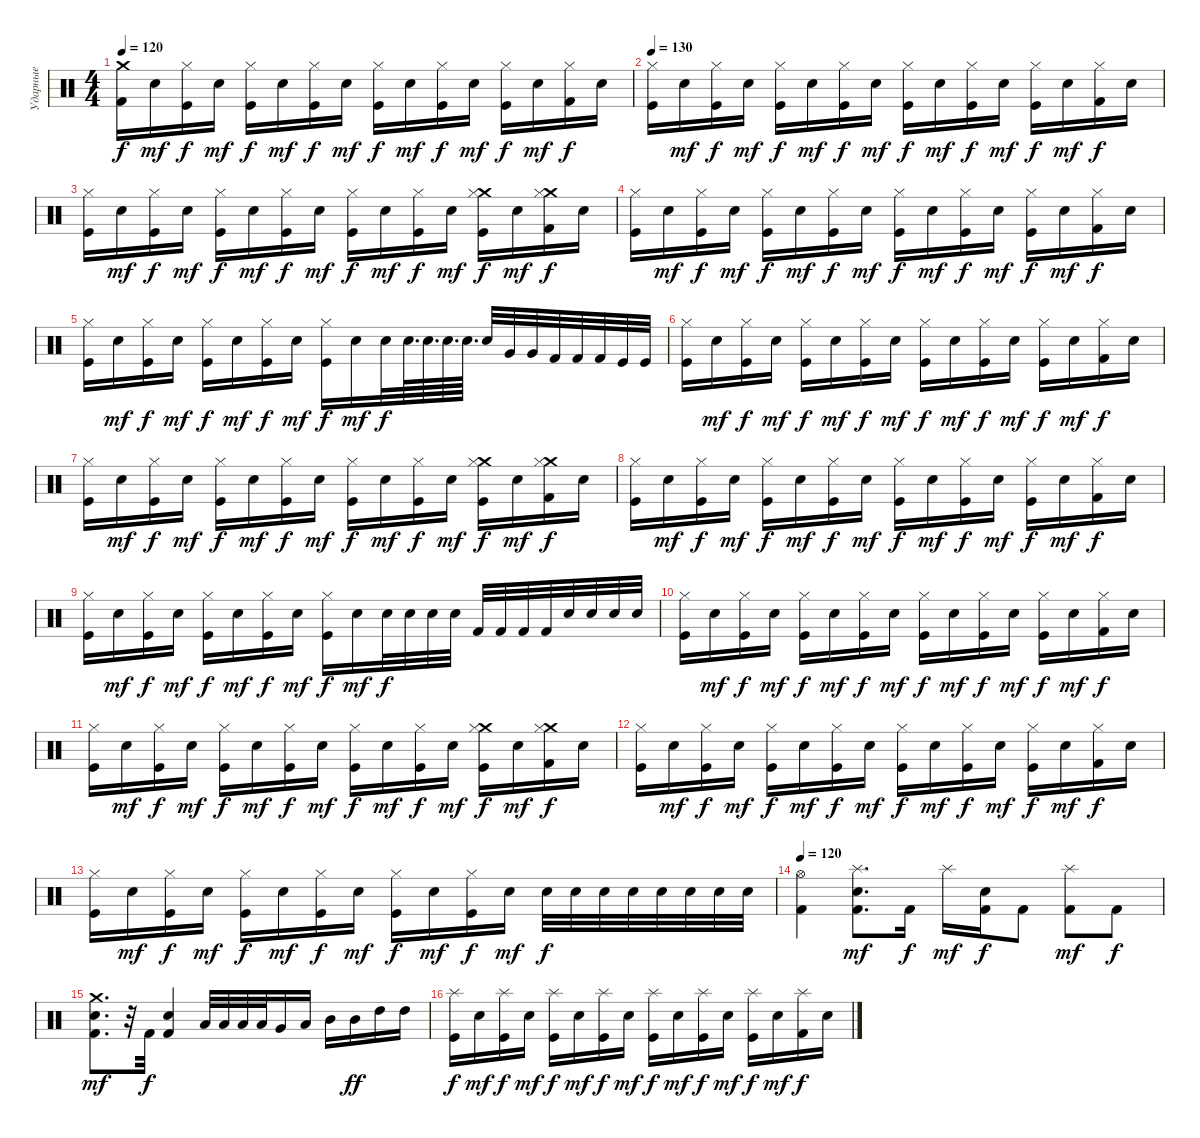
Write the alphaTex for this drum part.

\track ("Ударные" "Ударные") {instrument percussion}
\staff {score}
\articulation defaults
\ts (4 4)
\tempo 120
\clef neutral
\ks c
("Crash medium (hit)" "Kick (hit) 2").16{dy f} "Electric Snare (hit)".16{dy mf} ("Hi-Hat (closed)" "Kick (hit)").16{dy f} "Electric Snare (hit)".16{dy mf} ("Hi-Hat (closed)" "Kick (hit)").16{dy f} "Electric Snare (hit)".16{dy mf} ("Hi-Hat (closed)" "Kick (hit)").16{dy f} "Electric Snare (hit)".16{dy mf} ("Hi-Hat (closed)" "Kick (hit)").16{dy f} "Electric Snare (hit)".16{dy mf} ("Hi-Hat (closed)" "Kick (hit)").16{dy f} "Electric Snare (hit)".16{dy mf} ("Hi-Hat (closed)" "Kick (hit)").16{dy f} "Electric Snare (hit)".16{dy mf} ("Hi-Hat (closed)" "Kick (hit) 2").16{dy f} "Electric Snare (hit)".16 |
\tempo 130
("Hi-Hat (closed)" "Kick (hit)").16 "Electric Snare (hit)".16{dy mf} ("Hi-Hat (closed)" "Kick (hit)").16{dy f} "Electric Snare (hit)".16{dy mf} ("Hi-Hat (closed)" "Kick (hit)").16{dy f} "Electric Snare (hit)".16{dy mf} ("Hi-Hat (closed)" "Kick (hit)").16{dy f} "Electric Snare (hit)".16{dy mf} ("Hi-Hat (closed)" "Kick (hit)").16{dy f} "Electric Snare (hit)".16{dy mf} ("Hi-Hat (closed)" "Kick (hit)").16{dy f} "Electric Snare (hit)".16{dy mf} ("Hi-Hat (closed)" "Kick (hit)").16{dy f} "Electric Snare (hit)".16{dy mf} ("Hi-Hat (closed)" "Kick (hit) 2").16{dy f} "Electric Snare (hit)".16 |
("Hi-Hat (closed)" "Kick (hit)").16 "Electric Snare (hit)".16{dy mf} ("Hi-Hat (closed)" "Kick (hit)").16{dy f} "Electric Snare (hit)".16{dy mf} ("Hi-Hat (closed)" "Kick (hit)").16{dy f} "Electric Snare (hit)".16{dy mf} ("Hi-Hat (closed)" "Kick (hit)").16{dy f} "Electric Snare (hit)".16{dy mf} ("Hi-Hat (closed)" "Kick (hit)").16{dy f} "Electric Snare (hit)".16{dy mf} ("Hi-Hat (closed)" "Kick (hit)").16{dy f} "Electric Snare (hit)".16{dy mf} ("Crash medium (hit)" "Hi-Hat (closed)" "Kick (hit)").16{dy f} "Electric Snare (hit)".16{dy mf} ("Crash medium (hit)" "Hi-Hat (closed)" "Kick (hit) 2").16{dy f} "Electric Snare (hit)".16 |
("Hi-Hat (closed)" "Kick (hit)").16 "Electric Snare (hit)".16{dy mf} ("Hi-Hat (closed)" "Kick (hit)").16{dy f} "Electric Snare (hit)".16{dy mf} ("Hi-Hat (closed)" "Kick (hit)").16{dy f} "Electric Snare (hit)".16{dy mf} ("Hi-Hat (closed)" "Kick (hit)").16{dy f} "Electric Snare (hit)".16{dy mf} ("Hi-Hat (closed)" "Kick (hit)").16{dy f} "Electric Snare (hit)".16{dy mf} ("Hi-Hat (closed)" "Kick (hit)").16{dy f} "Electric Snare (hit)".16{dy mf} ("Hi-Hat (closed)" "Kick (hit)").16{dy f} "Electric Snare (hit)".16{dy mf} ("Hi-Hat (closed)" "Kick (hit) 2").16{dy f} "Electric Snare (hit)".16 |
("Hi-Hat (closed)" "Kick (hit)").16 "Electric Snare (hit)".16{dy mf} ("Hi-Hat (closed)" "Kick (hit)").16{dy f} "Electric Snare (hit)".16{dy mf} ("Hi-Hat (closed)" "Kick (hit)").16{dy f} "Electric Snare (hit)".16{dy mf} ("Hi-Hat (closed)" "Kick (hit)").16{dy f} "Electric Snare (hit)".16{dy mf} ("Hi-Hat (closed)" "Kick (hit)").16{dy f} "Electric Snare (hit)".16{dy mf} "Snare (hit) 2".32{dy f} "Snare (hit) 2".64{d} "Snare (hit) 2".64{d} "Electric Snare (hit)".64{d} "Electric Snare (hit)".64{d} "Electric Snare (hit)".32 "Very Low Tom (hit)".32 "Very Low Tom (hit)".32 "Kick (hit) 2".32 "Kick (hit) 2".32 "Kick (hit) 2".32 "Kick (hit)".32 "Kick (hit)".32 |
("Hi-Hat (closed)" "Kick (hit)").16 "Electric Snare (hit)".16{dy mf} ("Hi-Hat (closed)" "Kick (hit)").16{dy f} "Electric Snare (hit)".16{dy mf} ("Hi-Hat (closed)" "Kick (hit)").16{dy f} "Electric Snare (hit)".16{dy mf} ("Hi-Hat (closed)" "Kick (hit)").16{dy f} "Electric Snare (hit)".16{dy mf} ("Hi-Hat (closed)" "Kick (hit)").16{dy f} "Electric Snare (hit)".16{dy mf} ("Hi-Hat (closed)" "Kick (hit)").16{dy f} "Electric Snare (hit)".16{dy mf} ("Hi-Hat (closed)" "Kick (hit)").16{dy f} "Electric Snare (hit)".16{dy mf} ("Hi-Hat (closed)" "Kick (hit) 2").16{dy f} "Electric Snare (hit)".16 |
("Hi-Hat (closed)" "Kick (hit)").16 "Electric Snare (hit)".16{dy mf} ("Hi-Hat (closed)" "Kick (hit)").16{dy f} "Electric Snare (hit)".16{dy mf} ("Hi-Hat (closed)" "Kick (hit)").16{dy f} "Electric Snare (hit)".16{dy mf} ("Hi-Hat (closed)" "Kick (hit)").16{dy f} "Electric Snare (hit)".16{dy mf} ("Hi-Hat (closed)" "Kick (hit)").16{dy f} "Electric Snare (hit)".16{dy mf} ("Hi-Hat (closed)" "Kick (hit)").16{dy f} "Electric Snare (hit)".16{dy mf} ("Crash medium (hit)" "Hi-Hat (closed)" "Kick (hit)").16{dy f} "Electric Snare (hit)".16{dy mf} ("Crash medium (hit)" "Hi-Hat (closed)" "Kick (hit) 2").16{dy f} "Electric Snare (hit)".16 |
("Hi-Hat (closed)" "Kick (hit)").16 "Electric Snare (hit)".16{dy mf} ("Hi-Hat (closed)" "Kick (hit)").16{dy f} "Electric Snare (hit)".16{dy mf} ("Hi-Hat (closed)" "Kick (hit)").16{dy f} "Electric Snare (hit)".16{dy mf} ("Hi-Hat (closed)" "Kick (hit)").16{dy f} "Electric Snare (hit)".16{dy mf} ("Hi-Hat (closed)" "Kick (hit)").16{dy f} "Electric Snare (hit)".16{dy mf} ("Hi-Hat (closed)" "Kick (hit)").16{dy f} "Electric Snare (hit)".16{dy mf} ("Hi-Hat (closed)" "Kick (hit)").16{dy f} "Electric Snare (hit)".16{dy mf} ("Hi-Hat (closed)" "Kick (hit) 2").16{dy f} "Electric Snare (hit)".16 |
("Hi-Hat (closed)" "Kick (hit)").16 "Electric Snare (hit)".16{dy mf} ("Hi-Hat (closed)" "Kick (hit)").16{dy f} "Electric Snare (hit)".16{dy mf} ("Hi-Hat (closed)" "Kick (hit)").16{dy f} "Electric Snare (hit)".16{dy mf} ("Hi-Hat (closed)" "Kick (hit)").16{dy f} "Electric Snare (hit)".16{dy mf} ("Hi-Hat (closed)" "Kick (hit)").16{dy f} "Electric Snare (hit)".16{dy mf} "Snare (hit) 2".32{dy f} "Snare (hit) 2".32 "Snare (hit) 2".32 "Snare (hit) 2".32 "Kick (hit) 2".32 "Kick (hit) 2".32 "Kick (hit) 2".32 "Kick (hit) 2".32 "Electric Snare (hit)".32 "Electric Snare (hit)".32 "Electric Snare (hit)".32 "Electric Snare (hit)".32 |
("Hi-Hat (closed)" "Kick (hit)").16 "Electric Snare (hit)".16{dy mf} ("Hi-Hat (closed)" "Kick (hit)").16{dy f} "Electric Snare (hit)".16{dy mf} ("Hi-Hat (closed)" "Kick (hit)").16{dy f} "Electric Snare (hit)".16{dy mf} ("Hi-Hat (closed)" "Kick (hit)").16{dy f} "Electric Snare (hit)".16{dy mf} ("Hi-Hat (closed)" "Kick (hit)").16{dy f} "Electric Snare (hit)".16{dy mf} ("Hi-Hat (closed)" "Kick (hit)").16{dy f} "Electric Snare (hit)".16{dy mf} ("Hi-Hat (closed)" "Kick (hit)").16{dy f} "Electric Snare (hit)".16{dy mf} ("Hi-Hat (closed)" "Kick (hit) 2").16{dy f} "Electric Snare (hit)".16 |
("Hi-Hat (closed)" "Kick (hit)").16 "Electric Snare (hit)".16{dy mf} ("Hi-Hat (closed)" "Kick (hit)").16{dy f} "Electric Snare (hit)".16{dy mf} ("Hi-Hat (closed)" "Kick (hit)").16{dy f} "Electric Snare (hit)".16{dy mf} ("Hi-Hat (closed)" "Kick (hit)").16{dy f} "Electric Snare (hit)".16{dy mf} ("Hi-Hat (closed)" "Kick (hit)").16{dy f} "Electric Snare (hit)".16{dy mf} ("Hi-Hat (closed)" "Kick (hit)").16{dy f} "Electric Snare (hit)".16{dy mf} ("Crash medium (hit)" "Hi-Hat (closed)" "Kick (hit)").16{dy f} "Electric Snare (hit)".16{dy mf} ("Crash medium (hit)" "Hi-Hat (closed)" "Kick (hit) 2").16{dy f} "Electric Snare (hit)".16 |
("Hi-Hat (closed)" "Kick (hit)").16 "Electric Snare (hit)".16{dy mf} ("Hi-Hat (closed)" "Kick (hit)").16{dy f} "Electric Snare (hit)".16{dy mf} ("Hi-Hat (closed)" "Kick (hit)").16{dy f} "Electric Snare (hit)".16{dy mf} ("Hi-Hat (closed)" "Kick (hit)").16{dy f} "Electric Snare (hit)".16{dy mf} ("Hi-Hat (closed)" "Kick (hit)").16{dy f} "Electric Snare (hit)".16{dy mf} ("Hi-Hat (closed)" "Kick (hit)").16{dy f} "Electric Snare (hit)".16{dy mf} ("Hi-Hat (closed)" "Kick (hit)").16{dy f} "Electric Snare (hit)".16{dy mf} ("Hi-Hat (closed)" "Kick (hit) 2").16{dy f} "Electric Snare (hit)".16 |
("Hi-Hat (closed)" "Kick (hit)").16 "Electric Snare (hit)".16{dy mf} ("Hi-Hat (closed)" "Kick (hit)").16{dy f} "Electric Snare (hit)".16{dy mf} ("Hi-Hat (closed)" "Kick (hit)").16{dy f} "Electric Snare (hit)".16{dy mf} ("Hi-Hat (closed)" "Kick (hit)").16{dy f} "Electric Snare (hit)".16{dy mf} ("Hi-Hat (closed)" "Kick (hit)").16{dy f} "Electric Snare (hit)".16{dy mf} ("Hi-Hat (closed)" "Kick (hit)").16{dy f} "Electric Snare (hit)".16{dy mf} "Electric Snare (hit)".32{dy f} "Electric Snare (hit)".32 "Electric Snare (hit)".32 "Electric Snare (hit)".32 "Electric Snare (hit)".32 "Electric Snare (hit)".32 "Electric Snare (hit)".32 "Snare (hit) 2".32 |
\tempo 120
("Hi-Hat (open)" "Kick (hit) 2").4 ("Splash (hit)" "Electric Snare (hit)" "Kick (hit) 2").8{d dy mf} "Kick (hit) 2".16{dy f} "Splash (hit)".16{dy mf} ("Electric Snare (hit)" "Kick (hit) 2").16{dy f} "Kick (hit) 2".8 ("Splash (hit)" "Kick (hit) 2").8{dy mf} "Kick (hit) 2".8{dy f} |
("Crash medium (hit)" "Electric Snare (hit)" "Kick (hit) 2").8{d dy mf} r.32 "Kick (hit) 2".32{dy f} ("Electric Snare (hit)" "Kick (hit) 2").4 "Low Floor Tom (hit)".32 "Low Floor Tom (hit)".32 "Low Floor Tom (hit)".32 "Low Floor Tom (hit)".32 "Very Low Tom (hit)".16 "Low Tom (hit)".16 "Mid Tom (hit)".16 "Mid Tom (hit)".16{dy ff} "High Tom (hit)".16 "High Tom (hit)".16 |
("Splash (hit)" "Kick (hit)").16{dy f} "Electric Snare (hit)".16{dy mf} ("Splash (hit)" "Kick (hit)").16{dy f} "Electric Snare (hit)".16{dy mf} ("Splash (hit)" "Kick (hit)").16{dy f} "Electric Snare (hit)".16{dy mf} ("Splash (hit)" "Kick (hit)").16{dy f} "Electric Snare (hit)".16{dy mf} ("Splash (hit)" "Kick (hit)").16{dy f} "Electric Snare (hit)".16{dy mf} ("Splash (hit)" "Kick (hit)").16{dy f} "Electric Snare (hit)".16{dy mf} ("Splash (hit)" "Kick (hit)").16{dy f} "Electric Snare (hit)".16{dy mf} ("Splash (hit)" "Kick (hit) 2").16{dy f} "Electric Snare (hit)".16
